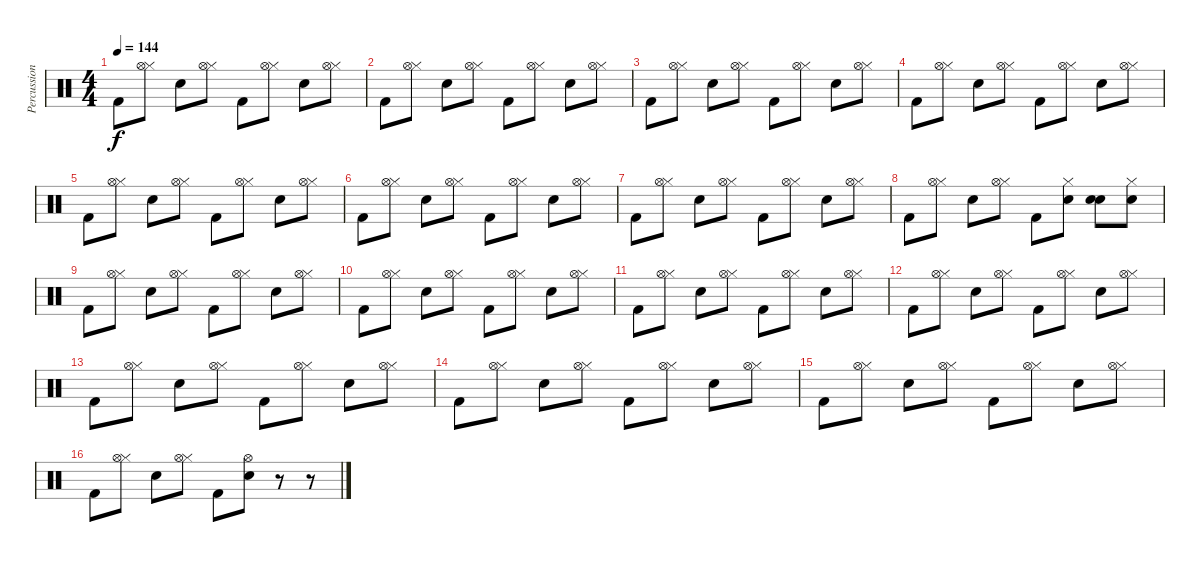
\track ("Percussion" "Percussion") {instrument percussion}
\staff {score}
\articulation defaults
\ts (4 4)
\tempo 144
\clef neutral
\ks c "Kick (hit) 2".8{dy f}
("Hi-Hat (closed)" "Hi-Hat (open)").8 "Electric Snare (hit)".8 ("Hi-Hat (closed)" "Hi-Hat (open)").8 "Kick (hit) 2".8 ("Hi-Hat (closed)" "Hi-Hat (open)").8 "Electric Snare (hit)".8 ("Hi-Hat (closed)" "Hi-Hat (open)").8 |
"Kick (hit) 2".8 ("Hi-Hat (closed)" "Hi-Hat (open)").8 "Electric Snare (hit)".8 ("Hi-Hat (closed)" "Hi-Hat (open)").8 "Kick (hit) 2".8 ("Hi-Hat (closed)" "Hi-Hat (open)").8 "Electric Snare (hit)".8 ("Hi-Hat (closed)" "Hi-Hat (open)").8 |
"Kick (hit) 2".8 ("Hi-Hat (closed)" "Hi-Hat (open)").8 "Electric Snare (hit)".8 ("Hi-Hat (closed)" "Hi-Hat (open)").8 "Kick (hit) 2".8 ("Hi-Hat (closed)" "Hi-Hat (open)").8 "Electric Snare (hit)".8 ("Hi-Hat (closed)" "Hi-Hat (open)").8 |
"Kick (hit) 2".8 ("Hi-Hat (closed)" "Hi-Hat (open)").8 "Electric Snare (hit)".8 ("Hi-Hat (closed)" "Hi-Hat (open)").8 "Kick (hit) 2".8 ("Hi-Hat (closed)" "Hi-Hat (open)").8 "Electric Snare (hit)".8 ("Hi-Hat (closed)" "Hi-Hat (open)").8 |
"Kick (hit) 2".8 ("Hi-Hat (closed)" "Hi-Hat (open)").8 "Electric Snare (hit)".8 ("Hi-Hat (closed)" "Hi-Hat (open)").8 "Kick (hit) 2".8 ("Hi-Hat (closed)" "Hi-Hat (open)").8 "Electric Snare (hit)".8 ("Hi-Hat (closed)" "Hi-Hat (open)").8 |
"Kick (hit) 2".8 ("Hi-Hat (closed)" "Hi-Hat (open)").8 "Electric Snare (hit)".8 ("Hi-Hat (closed)" "Hi-Hat (open)").8 "Kick (hit) 2".8 ("Hi-Hat (closed)" "Hi-Hat (open)").8 "Electric Snare (hit)".8 ("Hi-Hat (closed)" "Hi-Hat (open)").8 |
"Kick (hit) 2".8 ("Hi-Hat (closed)" "Hi-Hat (open)").8 "Electric Snare (hit)".8 ("Hi-Hat (closed)" "Hi-Hat (open)").8 "Kick (hit) 2".8 ("Hi-Hat (closed)" "Hi-Hat (open)").8 "Electric Snare (hit)".8 ("Hi-Hat (closed)" "Hi-Hat (open)").8 |
"Kick (hit) 2".8 ("Hi-Hat (closed)" "Hi-Hat (open)").8 "Electric Snare (hit)".8 ("Hi-Hat (closed)" "Hi-Hat (open)").8 "Kick (hit) 2".8 ("Hi-Hat (closed)" "Electric Snare (hit)").8 ("Electric Snare (hit)" "Electric Snare (hit)").8 ("Hi-Hat (closed)" "Electric Snare (hit)").8 |
"Kick (hit) 2".8 ("Hi-Hat (closed)" "Hi-Hat (open)").8 "Electric Snare (hit)".8 ("Hi-Hat (closed)" "Hi-Hat (open)").8 "Kick (hit) 2".8 ("Hi-Hat (closed)" "Hi-Hat (open)").8 "Electric Snare (hit)".8 ("Hi-Hat (closed)" "Hi-Hat (open)").8 |
"Kick (hit) 2".8 ("Hi-Hat (closed)" "Hi-Hat (open)").8 "Electric Snare (hit)".8 ("Hi-Hat (closed)" "Hi-Hat (open)").8 "Kick (hit) 2".8 ("Hi-Hat (closed)" "Hi-Hat (open)").8 "Electric Snare (hit)".8 ("Hi-Hat (closed)" "Hi-Hat (open)").8 |
"Kick (hit) 2".8 ("Hi-Hat (closed)" "Hi-Hat (open)").8 "Electric Snare (hit)".8 ("Hi-Hat (closed)" "Hi-Hat (open)").8 "Kick (hit) 2".8 ("Hi-Hat (closed)" "Hi-Hat (open)").8 "Electric Snare (hit)".8 ("Hi-Hat (closed)" "Hi-Hat (open)").8 |
"Kick (hit) 2".8 ("Hi-Hat (closed)" "Hi-Hat (open)").8 "Electric Snare (hit)".8 ("Hi-Hat (closed)" "Hi-Hat (open)").8 "Kick (hit) 2".8 ("Hi-Hat (closed)" "Hi-Hat (open)").8 "Electric Snare (hit)".8 ("Hi-Hat (closed)" "Hi-Hat (open)").8 |
"Kick (hit) 2".8 ("Hi-Hat (closed)" "Hi-Hat (open)").8 "Electric Snare (hit)".8 ("Hi-Hat (closed)" "Hi-Hat (open)").8 "Kick (hit) 2".8 ("Hi-Hat (closed)" "Hi-Hat (open)").8 "Electric Snare (hit)".8 ("Hi-Hat (closed)" "Hi-Hat (open)").8 |
"Kick (hit) 2".8 ("Hi-Hat (closed)" "Hi-Hat (open)").8 "Electric Snare (hit)".8 ("Hi-Hat (closed)" "Hi-Hat (open)").8 "Kick (hit) 2".8 ("Hi-Hat (closed)" "Hi-Hat (open)").8 "Electric Snare (hit)".8 ("Hi-Hat (closed)" "Hi-Hat (open)").8 |
"Kick (hit) 2".8 ("Hi-Hat (closed)" "Hi-Hat (open)").8 "Electric Snare (hit)".8 ("Hi-Hat (closed)" "Hi-Hat (open)").8 "Kick (hit) 2".8 ("Hi-Hat (closed)" "Hi-Hat (open)").8 "Electric Snare (hit)".8 ("Hi-Hat (closed)" "Hi-Hat (open)").8 |
"Kick (hit) 2".8 ("Hi-Hat (closed)" "Hi-Hat (open)").8 "Electric Snare (hit)".8 ("Hi-Hat (closed)" "Hi-Hat (open)").8 "Kick (hit) 2".8 ("Hi-Hat (open)" "Electric Snare (hit)").8 r.8 r.8
